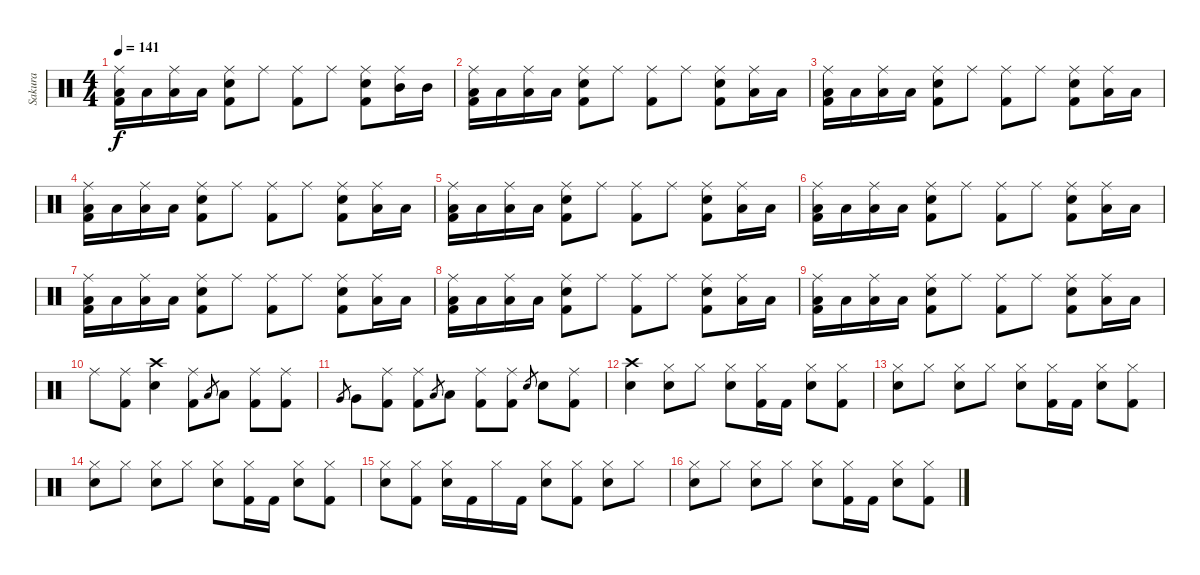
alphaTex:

\track ("Sakura" "Sakura") {instrument percussion}
\staff {score}
\articulation defaults
\ts (4 4)
\tempo 141
\clef neutral
\ks c
("Ride (middle)" "Low Tom (hit)" "Kick (hit) 2").16{dy f} "Low Tom (hit)".16 ("Ride (middle)" "Low Floor Tom (hit)").16 "Low Floor Tom (hit)".16 ("Ride (middle)" "Snare (hit) 2" "Kick (hit) 2").8 "Ride (middle)".8 ("Ride (middle)" "Kick (hit) 2").8 "Ride (middle)".8 ("Ride (middle)" "Snare (hit) 2" "Kick (hit) 2").8 ("Ride (middle)" "Mid Tom (hit)").16 "Mid Tom (hit)".16 |
("Ride (middle)" "Low Tom (hit)" "Kick (hit) 2").16 "Low Tom (hit)".16 ("Ride (middle)" "Low Floor Tom (hit)").16 "Low Floor Tom (hit)".16 ("Ride (middle)" "Snare (hit) 2" "Kick (hit) 2").8 "Ride (middle)".8 ("Ride (middle)" "Kick (hit) 2").8 "Ride (middle)".8 ("Ride (middle)" "Snare (hit) 2" "Kick (hit) 2").8 ("Ride (middle)" "Low Tom (hit)").16 "Low Tom (hit)".16 |
("Ride (middle)" "Low Tom (hit)" "Kick (hit) 2").16 "Low Tom (hit)".16 ("Ride (middle)" "Low Floor Tom (hit)").16 "Low Floor Tom (hit)".16 ("Ride (middle)" "Snare (hit) 2" "Kick (hit) 2").8 "Ride (middle)".8 ("Ride (middle)" "Kick (hit) 2").8 "Ride (middle)".8 ("Ride (middle)" "Snare (hit) 2" "Kick (hit) 2").8 ("Ride (middle)" "Low Tom (hit)").16 "Low Tom (hit)".16 |
("Ride (middle)" "Low Tom (hit)" "Kick (hit) 2").16 "Low Tom (hit)".16 ("Ride (middle)" "Low Floor Tom (hit)").16 "Low Floor Tom (hit)".16 ("Ride (middle)" "Snare (hit) 2" "Kick (hit) 2").8 "Ride (middle)".8 ("Ride (middle)" "Kick (hit) 2").8 "Ride (middle)".8 ("Ride (middle)" "Snare (hit) 2" "Kick (hit) 2").8 ("Ride (middle)" "Low Tom (hit)").16 "Low Tom (hit)".16 |
("Ride (middle)" "Low Tom (hit)" "Kick (hit) 2").16 "Low Tom (hit)".16 ("Ride (middle)" "Low Floor Tom (hit)").16 "Low Floor Tom (hit)".16 ("Ride (middle)" "Snare (hit) 2" "Kick (hit) 2").8 "Ride (middle)".8 ("Ride (middle)" "Kick (hit) 2").8 "Ride (middle)".8 ("Ride (middle)" "Snare (hit) 2" "Kick (hit) 2").8 ("Ride (middle)" "Low Tom (hit)").16 "Low Tom (hit)".16 |
("Ride (middle)" "Low Tom (hit)" "Kick (hit) 2").16 "Low Tom (hit)".16 ("Ride (middle)" "Low Floor Tom (hit)").16 "Low Floor Tom (hit)".16 ("Ride (middle)" "Snare (hit) 2" "Kick (hit) 2").8 "Ride (middle)".8 ("Ride (middle)" "Kick (hit) 2").8 "Ride (middle)".8 ("Ride (middle)" "Snare (hit) 2" "Kick (hit) 2").8 ("Ride (middle)" "Low Tom (hit)").16 "Low Tom (hit)".16 |
("Ride (middle)" "Low Tom (hit)" "Kick (hit) 2").16 "Low Tom (hit)".16 ("Ride (middle)" "Low Floor Tom (hit)").16 "Low Floor Tom (hit)".16 ("Ride (middle)" "Snare (hit) 2" "Kick (hit) 2").8 "Ride (middle)".8 ("Ride (middle)" "Kick (hit) 2").8 "Ride (middle)".8 ("Ride (middle)" "Snare (hit) 2" "Kick (hit) 2").8 ("Ride (middle)" "Low Tom (hit)").16 "Low Tom (hit)".16 |
("Ride (middle)" "Low Tom (hit)" "Kick (hit) 2").16 "Low Tom (hit)".16 ("Ride (middle)" "Low Floor Tom (hit)").16 "Low Floor Tom (hit)".16 ("Ride (middle)" "Snare (hit) 2" "Kick (hit) 2").8 "Ride (middle)".8 ("Ride (middle)" "Kick (hit) 2").8 "Ride (middle)".8 ("Ride (middle)" "Snare (hit) 2" "Kick (hit) 2").8 ("Ride (middle)" "Low Tom (hit)").16 "Low Tom (hit)".16 |
("Ride (middle)" "Low Tom (hit)" "Kick (hit) 2").16 "Low Tom (hit)".16 ("Ride (middle)" "Low Floor Tom (hit)").16 "Low Floor Tom (hit)".16 ("Ride (middle)" "Snare (hit) 2" "Kick (hit) 2").8 "Ride (middle)".8 ("Ride (middle)" "Kick (hit) 2").8 "Ride (middle)".8 ("Ride (middle)" "Snare (hit) 2" "Kick (hit) 2").8 ("Ride (middle)" "Low Tom (hit)").16 "Low Tom (hit)".16 |
"Ride (middle)".8 ("Ride (middle)" "Kick (hit) 2").8 ("Crash high (hit)" "Snare (hit) 2").4 ("Ride (middle)" "Kick (hit) 2").8 "Low Tom (hit)".8{gr} "Low Tom (hit)".8 ("Ride (middle)" "Kick (hit) 2").8 ("Ride (middle)" "Kick (hit) 2").8 |
"Very Low Tom (hit)".8{gr} "Very Low Tom (hit)".8 ("Ride (middle)" "Kick (hit) 2").8 ("Ride (middle)" "Kick (hit) 2").8 "Low Tom (hit)".8{gr} "Low Tom (hit)".8 ("Ride (middle)" "Kick (hit) 2").8 ("Ride (middle)" "Kick (hit) 2").8 "Snare (hit) 2".8{gr} "Snare (hit) 2".8 ("Ride (middle)" "Kick (hit) 2").8 |
("Crash high (hit)" "Snare (hit) 2").4 ("Hi-Hat (closed)" "Snare (hit) 2").8 "Hi-Hat (closed)".8 ("Hi-Hat (closed)" "Snare (hit) 2").8 ("Hi-Hat (closed)" "Kick (hit) 2").16 "Kick (hit) 2".16 ("Hi-Hat (closed)" "Snare (hit) 2").8 ("Hi-Hat (closed)" "Kick (hit) 2").8 |
("Hi-Hat (closed)" "Snare (hit) 2").8 "Hi-Hat (closed)".8 ("Hi-Hat (closed)" "Snare (hit) 2").8 "Hi-Hat (closed)".8 ("Hi-Hat (closed)" "Snare (hit) 2").8 ("Hi-Hat (closed)" "Kick (hit) 2").16 "Kick (hit) 2".16 ("Hi-Hat (closed)" "Snare (hit) 2").8 ("Hi-Hat (closed)" "Kick (hit) 2").8 |
("Hi-Hat (closed)" "Snare (hit) 2").8 "Hi-Hat (closed)".8 ("Hi-Hat (closed)" "Snare (hit) 2").8 "Hi-Hat (closed)".8 ("Hi-Hat (closed)" "Snare (hit) 2").8 ("Hi-Hat (closed)" "Kick (hit) 2").16 "Kick (hit) 2".16 ("Hi-Hat (closed)" "Snare (hit) 2").8 ("Hi-Hat (closed)" "Kick (hit) 2").8 |
("Hi-Hat (closed)" "Snare (hit) 2").8 ("Hi-Hat (closed)" "Kick (hit) 2").8 ("Hi-Hat (closed)" "Snare (hit) 2").16 "Kick (hit) 2".16 "Hi-Hat (closed)".16 "Kick (hit) 2".16 ("Hi-Hat (closed)" "Snare (hit) 2").8 ("Hi-Hat (closed)" "Kick (hit) 2").8 ("Hi-Hat (closed)" "Snare (hit) 2").8 "Hi-Hat (closed)".8 |
("Hi-Hat (closed)" "Snare (hit) 2").8 "Hi-Hat (closed)".8 ("Hi-Hat (closed)" "Snare (hit) 2").8 "Hi-Hat (closed)".8 ("Hi-Hat (closed)" "Snare (hit) 2").8 ("Hi-Hat (closed)" "Kick (hit) 2").16 "Kick (hit) 2".16 ("Hi-Hat (closed)" "Snare (hit) 2").8 ("Hi-Hat (closed)" "Kick (hit) 2").8
